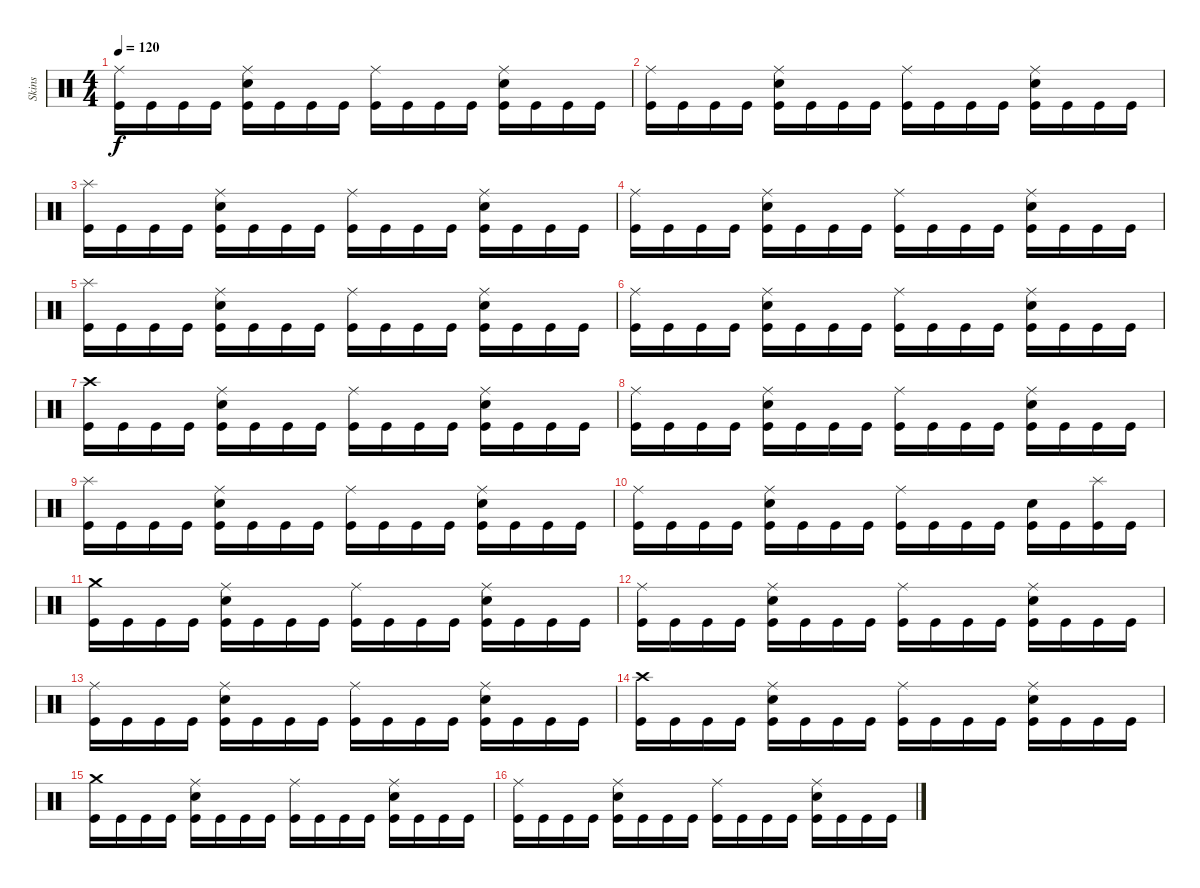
\track ("Skins" "Skins") {instrument percussion}
\staff {score}
\articulation defaults
\ts (4 4)
\tempo 120
\clef neutral
\ks c
("Ride (middle)" "Kick (hit)").16{dy f} "Kick (hit)".16 "Kick (hit)".16 "Kick (hit)".16 ("Ride (middle)" "Electric Snare (hit)" "Kick (hit)").16 "Kick (hit)".16 "Kick (hit)".16 "Kick (hit)".16 ("Ride (middle)" "Kick (hit)").16 "Kick (hit)".16 "Kick (hit)".16 "Kick (hit)".16 ("Ride (middle)" "Electric Snare (hit)" "Kick (hit)").16 "Kick (hit)".16 "Kick (hit)".16 "Kick (hit)".16 |
("Ride (middle)" "Kick (hit)").16 "Kick (hit)".16 "Kick (hit)".16 "Kick (hit)".16 ("Ride (middle)" "Electric Snare (hit)" "Kick (hit)").16 "Kick (hit)".16 "Kick (hit)".16 "Kick (hit)".16 ("Ride (middle)" "Kick (hit)").16 "Kick (hit)".16 "Kick (hit)".16 "Kick (hit)".16 ("Ride (middle)" "Electric Snare (hit)" "Kick (hit)").16 "Kick (hit)".16 "Kick (hit)".16 "Kick (hit)".16 |
("Splash (hit)" "Kick (hit)").16 "Kick (hit)".16 "Kick (hit)".16 "Kick (hit)".16 ("Ride (middle)" "Electric Snare (hit)" "Kick (hit)").16 "Kick (hit)".16 "Kick (hit)".16 "Kick (hit)".16 ("Ride (middle)" "Kick (hit)").16 "Kick (hit)".16 "Kick (hit)".16 "Kick (hit)".16 ("Ride (middle)" "Electric Snare (hit)" "Kick (hit)").16 "Kick (hit)".16 "Kick (hit)".16 "Kick (hit)".16 |
("Ride (middle)" "Kick (hit)").16 "Kick (hit)".16 "Kick (hit)".16 "Kick (hit)".16 ("Ride (middle)" "Electric Snare (hit)" "Kick (hit)").16 "Kick (hit)".16 "Kick (hit)".16 "Kick (hit)".16 ("Ride (middle)" "Kick (hit)").16 "Kick (hit)".16 "Kick (hit)".16 "Kick (hit)".16 ("Ride (middle)" "Electric Snare (hit)" "Kick (hit)").16 "Kick (hit)".16 "Kick (hit)".16 "Kick (hit)".16 |
("Splash (hit)" "Kick (hit)").16 "Kick (hit)".16 "Kick (hit)".16 "Kick (hit)".16 ("Ride (middle)" "Electric Snare (hit)" "Kick (hit)").16 "Kick (hit)".16 "Kick (hit)".16 "Kick (hit)".16 ("Ride (middle)" "Kick (hit)").16 "Kick (hit)".16 "Kick (hit)".16 "Kick (hit)".16 ("Ride (middle)" "Electric Snare (hit)" "Kick (hit)").16 "Kick (hit)".16 "Kick (hit)".16 "Kick (hit)".16 |
("Ride (middle)" "Kick (hit)").16 "Kick (hit)".16 "Kick (hit)".16 "Kick (hit)".16 ("Ride (middle)" "Electric Snare (hit)" "Kick (hit)").16 "Kick (hit)".16 "Kick (hit)".16 "Kick (hit)".16 ("Ride (middle)" "Kick (hit)").16 "Kick (hit)".16 "Kick (hit)".16 "Kick (hit)".16 ("Ride (middle)" "Electric Snare (hit)" "Kick (hit)").16 "Kick (hit)".16 "Kick (hit)".16 "Kick (hit)".16 |
("Crash high (hit)" "Kick (hit)").16{volume 12} "Kick (hit)".16 "Kick (hit)".16 "Kick (hit)".16 ("Ride (middle)" "Electric Snare (hit)" "Kick (hit)").16 "Kick (hit)".16 "Kick (hit)".16 "Kick (hit)".16 ("Ride (middle)" "Kick (hit)").16 "Kick (hit)".16 "Kick (hit)".16 "Kick (hit)".16 ("Ride (middle)" "Electric Snare (hit)" "Kick (hit)").16 "Kick (hit)".16 "Kick (hit)".16 "Kick (hit)".16 |
("Ride (middle)" "Kick (hit)").16{volume 11} "Kick (hit)".16 "Kick (hit)".16 "Kick (hit)".16 ("Ride (middle)" "Electric Snare (hit)" "Kick (hit)").16 "Kick (hit)".16 "Kick (hit)".16 "Kick (hit)".16 ("Ride (middle)" "Kick (hit)").16 "Kick (hit)".16 "Kick (hit)".16 "Kick (hit)".16 ("Ride (middle)" "Electric Snare (hit)" "Kick (hit)").16 "Kick (hit)".16 "Kick (hit)".16 "Kick (hit)".16 |
("Splash (hit)" "Kick (hit)").16 "Kick (hit)".16 "Kick (hit)".16 "Kick (hit)".16 ("Ride (middle)" "Electric Snare (hit)" "Kick (hit)").16 "Kick (hit)".16 "Kick (hit)".16 "Kick (hit)".16 ("Ride (middle)" "Kick (hit)").16 "Kick (hit)".16 "Kick (hit)".16 "Kick (hit)".16 ("Ride (middle)" "Electric Snare (hit)" "Kick (hit)").16 "Kick (hit)".16 "Kick (hit)".16 "Kick (hit)".16 |
("Ride (middle)" "Kick (hit)").16{volume 10} "Kick (hit)".16 "Kick (hit)".16 "Kick (hit)".16 ("Ride (middle)" "Electric Snare (hit)" "Kick (hit)").16 "Kick (hit)".16 "Kick (hit)".16 "Kick (hit)".16 ("Ride (middle)" "Kick (hit)").16 "Kick (hit)".16 "Kick (hit)".16 "Kick (hit)".16 ("Electric Snare (hit)" "Kick (hit)").16 "Kick (hit)".16 ("Splash (hit)" "Kick (hit)").16 "Kick (hit)".16 |
("Crash medium (hit)" "Kick (hit)").16{volume 9} "Kick (hit)".16 "Kick (hit)".16 "Kick (hit)".16 ("Ride (middle)" "Electric Snare (hit)" "Kick (hit)").16 "Kick (hit)".16 "Kick (hit)".16 "Kick (hit)".16 ("Ride (middle)" "Kick (hit)").16 "Kick (hit)".16 "Kick (hit)".16 "Kick (hit)".16 ("Ride (middle)" "Electric Snare (hit)" "Kick (hit)").16 "Kick (hit)".16 "Kick (hit)".16 "Kick (hit)".16 |
("Ride (middle)" "Kick (hit)").16{volume 8} "Kick (hit)".16 "Kick (hit)".16 "Kick (hit)".16 ("Ride (middle)" "Electric Snare (hit)" "Kick (hit)").16 "Kick (hit)".16 "Kick (hit)".16 "Kick (hit)".16 ("Ride (middle)" "Kick (hit)").16 "Kick (hit)".16 "Kick (hit)".16 "Kick (hit)".16 ("Ride (middle)" "Electric Snare (hit)" "Kick (hit)").16 "Kick (hit)".16 "Kick (hit)".16 "Kick (hit)".16 |
("Ride (middle)" "Kick (hit)").16 "Kick (hit)".16 "Kick (hit)".16 "Kick (hit)".16 ("Ride (middle)" "Electric Snare (hit)" "Kick (hit)").16 "Kick (hit)".16 "Kick (hit)".16 "Kick (hit)".16 ("Ride (middle)" "Kick (hit)").16 "Kick (hit)".16 "Kick (hit)".16 "Kick (hit)".16 ("Ride (middle)" "Electric Snare (hit)" "Kick (hit)").16 "Kick (hit)".16 "Kick (hit)".16 "Kick (hit)".16 |
("Crash high (hit)" "Kick (hit)").16{volume 7} "Kick (hit)".16 "Kick (hit)".16 "Kick (hit)".16 ("Ride (middle)" "Electric Snare (hit)" "Kick (hit)").16 "Kick (hit)".16 "Kick (hit)".16 "Kick (hit)".16 ("Ride (middle)" "Kick (hit)").16 "Kick (hit)".16 "Kick (hit)".16 "Kick (hit)".16 ("Ride (middle)" "Electric Snare (hit)" "Kick (hit)").16 "Kick (hit)".16 "Kick (hit)".16 "Kick (hit)".16 |
("Crash medium (hit)" "Kick (hit)").16{volume 6} "Kick (hit)".16 "Kick (hit)".16 "Kick (hit)".16 ("Ride (middle)" "Electric Snare (hit)" "Kick (hit)").16 "Kick (hit)".16 "Kick (hit)".16 "Kick (hit)".16 ("Ride (middle)" "Kick (hit)").16 "Kick (hit)".16 "Kick (hit)".16 "Kick (hit)".16 ("Ride (middle)" "Electric Snare (hit)" "Kick (hit)").16 "Kick (hit)".16 "Kick (hit)".16 "Kick (hit)".16 |
("Ride (middle)" "Kick (hit)").16{volume 5} "Kick (hit)".16 "Kick (hit)".16 "Kick (hit)".16 ("Ride (middle)" "Electric Snare (hit)" "Kick (hit)").16 "Kick (hit)".16 "Kick (hit)".16 "Kick (hit)".16 ("Ride (middle)" "Kick (hit)").16 "Kick (hit)".16 "Kick (hit)".16 "Kick (hit)".16 ("Ride (middle)" "Electric Snare (hit)" "Kick (hit)").16 "Kick (hit)".16 "Kick (hit)".16 "Kick (hit)".16
